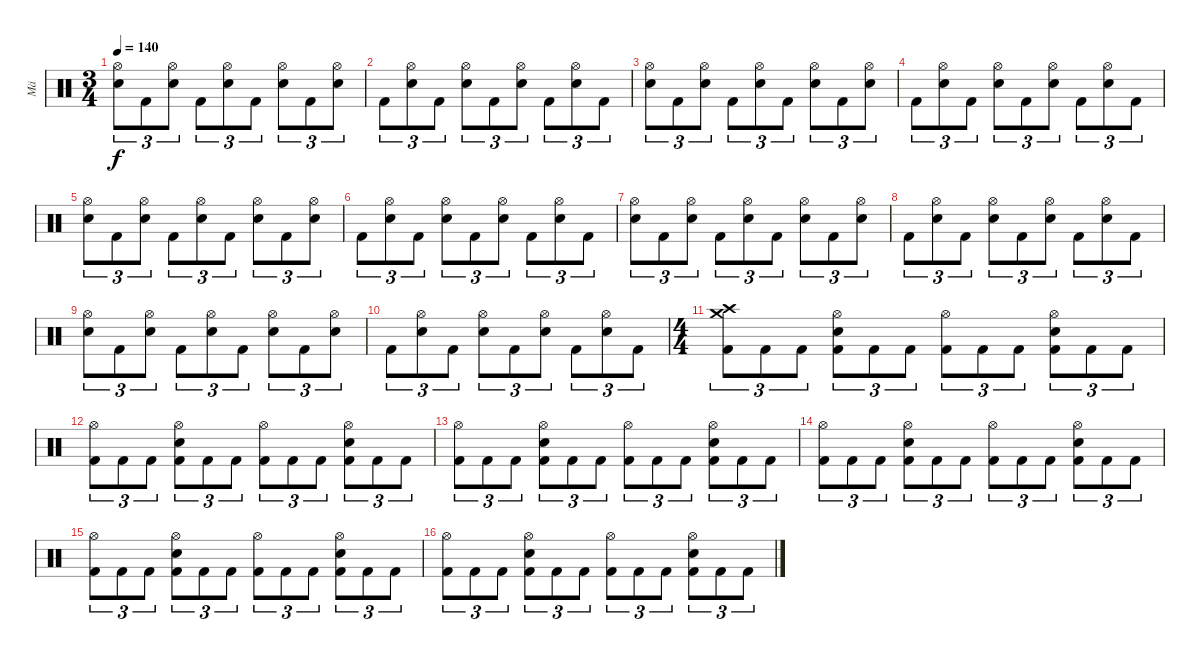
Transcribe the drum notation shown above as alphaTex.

\track ("Mä" "Mä") {instrument percussion}
\staff {score}
\articulation defaults
\ts (3 4)
\tempo 140
\clef neutral
\ks c
("Hi-Hat (open)" "Snare (hit) 2").8{tu (3 2) dy f} "Kick (hit) 2".8{tu (3 2)} ("Hi-Hat (open)" "Snare (hit) 2").8{tu (3 2)} "Kick (hit) 2".8{tu (3 2)} ("Hi-Hat (open)" "Snare (hit) 2").8{tu (3 2)} "Kick (hit) 2".8{tu (3 2)} ("Hi-Hat (open)" "Snare (hit) 2").8{tu (3 2)} "Kick (hit) 2".8{tu (3 2)} ("Hi-Hat (open)" "Snare (hit) 2").8{tu (3 2)} |
"Kick (hit) 2".8{tu (3 2)} ("Hi-Hat (open)" "Snare (hit) 2").8{tu (3 2)} "Kick (hit) 2".8{tu (3 2)} ("Hi-Hat (open)" "Snare (hit) 2").8{tu (3 2)} "Kick (hit) 2".8{tu (3 2)} ("Hi-Hat (open)" "Snare (hit) 2").8{tu (3 2)} "Kick (hit) 2".8{tu (3 2)} ("Hi-Hat (open)" "Snare (hit) 2").8{tu (3 2)} "Kick (hit) 2".8{tu (3 2)} |
("Hi-Hat (open)" "Snare (hit) 2").8{tu (3 2)} "Kick (hit) 2".8{tu (3 2)} ("Hi-Hat (open)" "Snare (hit) 2").8{tu (3 2)} "Kick (hit) 2".8{tu (3 2)} ("Hi-Hat (open)" "Snare (hit) 2").8{tu (3 2)} "Kick (hit) 2".8{tu (3 2)} ("Hi-Hat (open)" "Snare (hit) 2").8{tu (3 2)} "Kick (hit) 2".8{tu (3 2)} ("Hi-Hat (open)" "Snare (hit) 2").8{tu (3 2)} |
"Kick (hit) 2".8{tu (3 2)} ("Hi-Hat (open)" "Snare (hit) 2").8{tu (3 2)} "Kick (hit) 2".8{tu (3 2)} ("Hi-Hat (open)" "Snare (hit) 2").8{tu (3 2)} "Kick (hit) 2".8{tu (3 2)} ("Hi-Hat (open)" "Snare (hit) 2").8{tu (3 2)} "Kick (hit) 2".8{tu (3 2)} ("Hi-Hat (open)" "Snare (hit) 2").8{tu (3 2)} "Kick (hit) 2".8{tu (3 2)} |
("Hi-Hat (open)" "Snare (hit) 2").8{tu (3 2)} "Kick (hit) 2".8{tu (3 2)} ("Hi-Hat (open)" "Snare (hit) 2").8{tu (3 2)} "Kick (hit) 2".8{tu (3 2)} ("Hi-Hat (open)" "Snare (hit) 2").8{tu (3 2)} "Kick (hit) 2".8{tu (3 2)} ("Hi-Hat (open)" "Snare (hit) 2").8{tu (3 2)} "Kick (hit) 2".8{tu (3 2)} ("Hi-Hat (open)" "Snare (hit) 2").8{tu (3 2)} |
"Kick (hit) 2".8{tu (3 2)} ("Hi-Hat (open)" "Snare (hit) 2").8{tu (3 2)} "Kick (hit) 2".8{tu (3 2)} ("Hi-Hat (open)" "Snare (hit) 2").8{tu (3 2)} "Kick (hit) 2".8{tu (3 2)} ("Hi-Hat (open)" "Snare (hit) 2").8{tu (3 2)} "Kick (hit) 2".8{tu (3 2)} ("Hi-Hat (open)" "Snare (hit) 2").8{tu (3 2)} "Kick (hit) 2".8{tu (3 2)} |
("Hi-Hat (open)" "Snare (hit) 2").8{tu (3 2)} "Kick (hit) 2".8{tu (3 2)} ("Hi-Hat (open)" "Snare (hit) 2").8{tu (3 2)} "Kick (hit) 2".8{tu (3 2)} ("Hi-Hat (open)" "Snare (hit) 2").8{tu (3 2)} "Kick (hit) 2".8{tu (3 2)} ("Hi-Hat (open)" "Snare (hit) 2").8{tu (3 2)} "Kick (hit) 2".8{tu (3 2)} ("Hi-Hat (open)" "Snare (hit) 2").8{tu (3 2)} |
"Kick (hit) 2".8{tu (3 2)} ("Hi-Hat (open)" "Snare (hit) 2").8{tu (3 2)} "Kick (hit) 2".8{tu (3 2)} ("Hi-Hat (open)" "Snare (hit) 2").8{tu (3 2)} "Kick (hit) 2".8{tu (3 2)} ("Hi-Hat (open)" "Snare (hit) 2").8{tu (3 2)} "Kick (hit) 2".8{tu (3 2)} ("Hi-Hat (open)" "Snare (hit) 2").8{tu (3 2)} "Kick (hit) 2".8{tu (3 2)} |
("Hi-Hat (open)" "Snare (hit) 2").8{tu (3 2)} "Kick (hit) 2".8{tu (3 2)} ("Hi-Hat (open)" "Snare (hit) 2").8{tu (3 2)} "Kick (hit) 2".8{tu (3 2)} ("Hi-Hat (open)" "Snare (hit) 2").8{tu (3 2)} "Kick (hit) 2".8{tu (3 2)} ("Hi-Hat (open)" "Snare (hit) 2").8{tu (3 2)} "Kick (hit) 2".8{tu (3 2)} ("Hi-Hat (open)" "Snare (hit) 2").8{tu (3 2)} |
"Kick (hit) 2".8{tu (3 2)} ("Hi-Hat (open)" "Snare (hit) 2").8{tu (3 2)} "Kick (hit) 2".8{tu (3 2)} ("Hi-Hat (open)" "Snare (hit) 2").8{tu (3 2)} "Kick (hit) 2".8{tu (3 2)} ("Hi-Hat (open)" "Snare (hit) 2").8{tu (3 2)} "Kick (hit) 2".8{tu (3 2)} ("Hi-Hat (open)" "Snare (hit) 2").8{tu (3 2)} "Kick (hit) 2".8{tu (3 2)} |
\ts (4 4)
("Crash medium (hit)" "Crash high (hit)" "Kick (hit) 2").8{tu (3 2)} "Kick (hit) 2".8{tu (3 2)} "Kick (hit) 2".8{tu (3 2)} ("Hi-Hat (open)" "Snare (hit) 2" "Kick (hit) 2").8{tu (3 2)} "Kick (hit) 2".8{tu (3 2)} "Kick (hit) 2".8{tu (3 2)} ("Hi-Hat (open)" "Kick (hit) 2").8{tu (3 2)} "Kick (hit) 2".8{tu (3 2)} "Kick (hit) 2".8{tu (3 2)} ("Hi-Hat (open)" "Snare (hit) 2" "Kick (hit) 2").8{tu (3 2)} "Kick (hit) 2".8{tu (3 2)} "Kick (hit) 2".8{tu (3 2)} |
("Hi-Hat (open)" "Kick (hit) 2").8{tu (3 2)} "Kick (hit) 2".8{tu (3 2)} "Kick (hit) 2".8{tu (3 2)} ("Hi-Hat (open)" "Snare (hit) 2" "Kick (hit) 2").8{tu (3 2)} "Kick (hit) 2".8{tu (3 2)} "Kick (hit) 2".8{tu (3 2)} ("Hi-Hat (open)" "Kick (hit) 2").8{tu (3 2)} "Kick (hit) 2".8{tu (3 2)} "Kick (hit) 2".8{tu (3 2)} ("Hi-Hat (open)" "Snare (hit) 2" "Kick (hit) 2").8{tu (3 2)} "Kick (hit) 2".8{tu (3 2)} "Kick (hit) 2".8{tu (3 2)} |
("Hi-Hat (open)" "Kick (hit) 2").8{tu (3 2)} "Kick (hit) 2".8{tu (3 2)} "Kick (hit) 2".8{tu (3 2)} ("Hi-Hat (open)" "Snare (hit) 2" "Kick (hit) 2").8{tu (3 2)} "Kick (hit) 2".8{tu (3 2)} "Kick (hit) 2".8{tu (3 2)} ("Hi-Hat (open)" "Kick (hit) 2").8{tu (3 2)} "Kick (hit) 2".8{tu (3 2)} "Kick (hit) 2".8{tu (3 2)} ("Hi-Hat (open)" "Snare (hit) 2" "Kick (hit) 2").8{tu (3 2)} "Kick (hit) 2".8{tu (3 2)} "Kick (hit) 2".8{tu (3 2)} |
("Hi-Hat (open)" "Kick (hit) 2").8{tu (3 2)} "Kick (hit) 2".8{tu (3 2)} "Kick (hit) 2".8{tu (3 2)} ("Hi-Hat (open)" "Snare (hit) 2" "Kick (hit) 2").8{tu (3 2)} "Kick (hit) 2".8{tu (3 2)} "Kick (hit) 2".8{tu (3 2)} ("Hi-Hat (open)" "Kick (hit) 2").8{tu (3 2)} "Kick (hit) 2".8{tu (3 2)} "Kick (hit) 2".8{tu (3 2)} ("Hi-Hat (open)" "Snare (hit) 2" "Kick (hit) 2").8{tu (3 2)} "Kick (hit) 2".8{tu (3 2)} "Kick (hit) 2".8{tu (3 2)} |
("Hi-Hat (open)" "Kick (hit) 2").8{tu (3 2)} "Kick (hit) 2".8{tu (3 2)} "Kick (hit) 2".8{tu (3 2)} ("Hi-Hat (open)" "Snare (hit) 2" "Kick (hit) 2").8{tu (3 2)} "Kick (hit) 2".8{tu (3 2)} "Kick (hit) 2".8{tu (3 2)} ("Hi-Hat (open)" "Kick (hit) 2").8{tu (3 2)} "Kick (hit) 2".8{tu (3 2)} "Kick (hit) 2".8{tu (3 2)} ("Hi-Hat (open)" "Snare (hit) 2" "Kick (hit) 2").8{tu (3 2)} "Kick (hit) 2".8{tu (3 2)} "Kick (hit) 2".8{tu (3 2)} |
("Hi-Hat (open)" "Kick (hit) 2").8{tu (3 2)} "Kick (hit) 2".8{tu (3 2)} "Kick (hit) 2".8{tu (3 2)} ("Hi-Hat (open)" "Snare (hit) 2" "Kick (hit) 2").8{tu (3 2)} "Kick (hit) 2".8{tu (3 2)} "Kick (hit) 2".8{tu (3 2)} ("Hi-Hat (open)" "Kick (hit) 2").8{tu (3 2)} "Kick (hit) 2".8{tu (3 2)} "Kick (hit) 2".8{tu (3 2)} ("Hi-Hat (open)" "Snare (hit) 2" "Kick (hit) 2").8{tu (3 2)} "Kick (hit) 2".8{tu (3 2)} "Kick (hit) 2".8{tu (3 2)}
